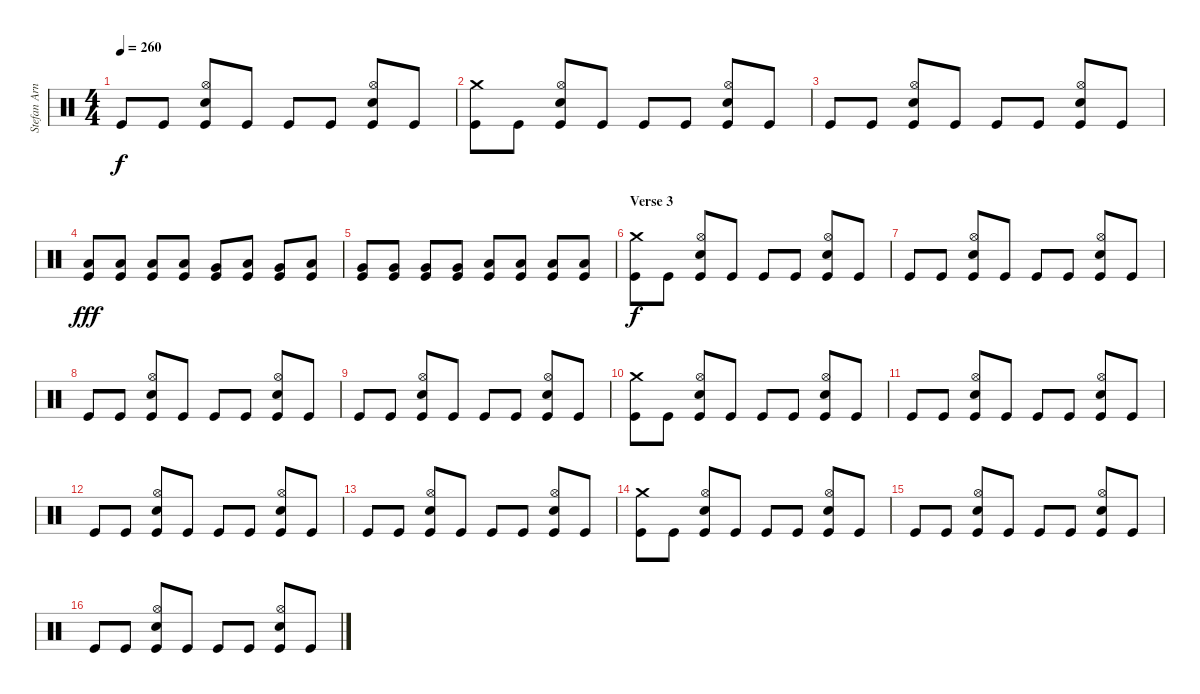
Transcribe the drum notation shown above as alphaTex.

\track ("Stefan Arnold" "Stefan Arn") {instrument percussion}
\staff {score}
\articulation defaults
\ts (4 4)
\tempo 260
\clef neutral
\ks c "Kick (hit)".8{dy f} "Kick (hit)".8
("Hi-Hat (open)" "Electric Snare (hit)" "Kick (hit)").8 "Kick (hit)".8 "Kick (hit)".8 "Kick (hit)".8 ("Hi-Hat (open)" "Electric Snare (hit)" "Kick (hit)").8 "Kick (hit)".8 |
("Crash medium (hit)" "Kick (hit)").8 "Kick (hit)".8 ("Hi-Hat (open)" "Electric Snare (hit)" "Kick (hit)").8 "Kick (hit)".8 "Kick (hit)".8 "Kick (hit)".8 ("Hi-Hat (open)" "Electric Snare (hit)" "Kick (hit)").8 "Kick (hit)".8 |
"Kick (hit)".8 "Kick (hit)".8 ("Hi-Hat (open)" "Electric Snare (hit)" "Kick (hit)").8 "Kick (hit)".8 "Kick (hit)".8 "Kick (hit)".8 ("Hi-Hat (open)" "Electric Snare (hit)" "Kick (hit)").8 "Kick (hit)".8 |
("Low Tom (hit)" "Kick (hit)").8{dy fff} ("Low Tom (hit)" "Kick (hit)").8 ("Low Tom (hit)" "Kick (hit)").8 ("Low Tom (hit)" "Kick (hit)").8 ("Very Low Tom (hit)" "Kick (hit)").8 ("Low Tom (hit)" "Kick (hit)").8 ("Very Low Tom (hit)" "Kick (hit)").8 ("Low Tom (hit)" "Kick (hit)").8 |
("Very Low Tom (hit)" "Kick (hit)").8 ("Very Low Tom (hit)" "Kick (hit)").8 ("Very Low Tom (hit)" "Kick (hit)").8 ("Very Low Tom (hit)" "Kick (hit)").8 ("Low Floor Tom (hit)" "Kick (hit)").8 ("Low Floor Tom (hit)" "Kick (hit)").8 ("Low Floor Tom (hit)" "Kick (hit)").8 ("Low Floor Tom (hit)" "Kick (hit)").8 |
\section ("" "Verse 3")
("Crash medium (hit)" "Kick (hit)").8{dy f} "Kick (hit)".8 ("Hi-Hat (open)" "Electric Snare (hit)" "Kick (hit)").8 "Kick (hit)".8 "Kick (hit)".8 "Kick (hit)".8 ("Hi-Hat (open)" "Electric Snare (hit)" "Kick (hit)").8 "Kick (hit)".8 |
"Kick (hit)".8 "Kick (hit)".8 ("Hi-Hat (open)" "Electric Snare (hit)" "Kick (hit)").8 "Kick (hit)".8 "Kick (hit)".8 "Kick (hit)".8 ("Hi-Hat (open)" "Electric Snare (hit)" "Kick (hit)").8 "Kick (hit)".8 |
"Kick (hit)".8 "Kick (hit)".8 ("Hi-Hat (open)" "Electric Snare (hit)" "Kick (hit)").8 "Kick (hit)".8 "Kick (hit)".8 "Kick (hit)".8 ("Hi-Hat (open)" "Electric Snare (hit)" "Kick (hit)").8 "Kick (hit)".8 |
"Kick (hit)".8 "Kick (hit)".8 ("Hi-Hat (open)" "Electric Snare (hit)" "Kick (hit)").8 "Kick (hit)".8 "Kick (hit)".8 "Kick (hit)".8 ("Hi-Hat (open)" "Electric Snare (hit)" "Kick (hit)").8 "Kick (hit)".8 |
("Crash medium (hit)" "Kick (hit)").8 "Kick (hit)".8 ("Hi-Hat (open)" "Electric Snare (hit)" "Kick (hit)").8 "Kick (hit)".8 "Kick (hit)".8 "Kick (hit)".8 ("Hi-Hat (open)" "Electric Snare (hit)" "Kick (hit)").8 "Kick (hit)".8 |
"Kick (hit)".8 "Kick (hit)".8 ("Hi-Hat (open)" "Electric Snare (hit)" "Kick (hit)").8 "Kick (hit)".8 "Kick (hit)".8 "Kick (hit)".8 ("Hi-Hat (open)" "Electric Snare (hit)" "Kick (hit)").8 "Kick (hit)".8 |
"Kick (hit)".8 "Kick (hit)".8 ("Hi-Hat (open)" "Electric Snare (hit)" "Kick (hit)").8 "Kick (hit)".8 "Kick (hit)".8 "Kick (hit)".8 ("Hi-Hat (open)" "Electric Snare (hit)" "Kick (hit)").8 "Kick (hit)".8 |
"Kick (hit)".8 "Kick (hit)".8 ("Hi-Hat (open)" "Electric Snare (hit)" "Kick (hit)").8 "Kick (hit)".8 "Kick (hit)".8 "Kick (hit)".8 ("Hi-Hat (open)" "Electric Snare (hit)" "Kick (hit)").8 "Kick (hit)".8 |
("Crash medium (hit)" "Kick (hit)").8 "Kick (hit)".8 ("Hi-Hat (open)" "Electric Snare (hit)" "Kick (hit)").8 "Kick (hit)".8 "Kick (hit)".8 "Kick (hit)".8 ("Hi-Hat (open)" "Electric Snare (hit)" "Kick (hit)").8 "Kick (hit)".8 |
"Kick (hit)".8 "Kick (hit)".8 ("Hi-Hat (open)" "Electric Snare (hit)" "Kick (hit)").8 "Kick (hit)".8 "Kick (hit)".8 "Kick (hit)".8 ("Hi-Hat (open)" "Electric Snare (hit)" "Kick (hit)").8 "Kick (hit)".8 |
"Kick (hit)".8 "Kick (hit)".8 ("Hi-Hat (open)" "Electric Snare (hit)" "Kick (hit)").8 "Kick (hit)".8 "Kick (hit)".8 "Kick (hit)".8 ("Hi-Hat (open)" "Electric Snare (hit)" "Kick (hit)").8 "Kick (hit)".8
